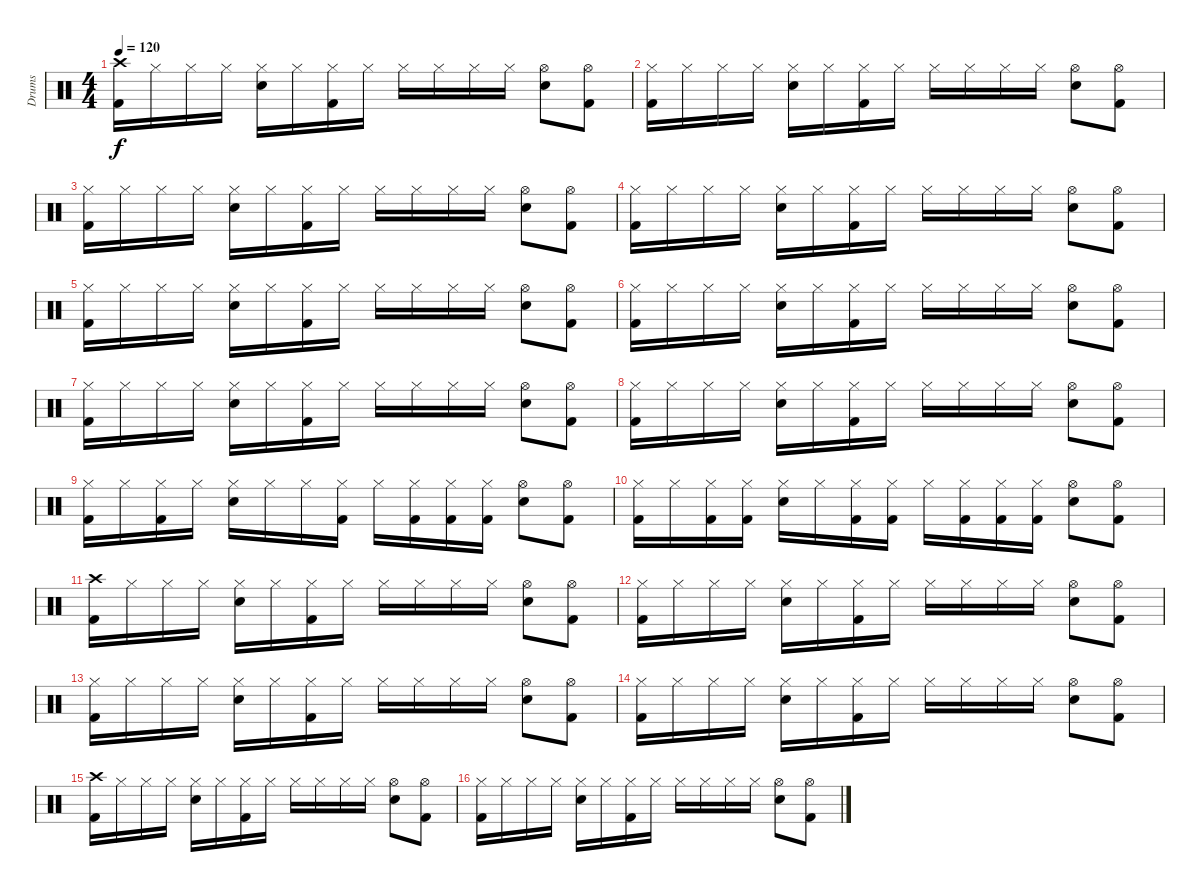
\track ("Drums" "Drums") {instrument percussion}
\staff {score}
\articulation defaults
\ts (4 4)
\tempo 120
\clef neutral
\ks c
("Crash high (hit)" "Kick (hit) 2").16{dy f} "Hi-Hat (closed)".16 "Hi-Hat (closed)".16 "Hi-Hat (closed)".16 ("Hi-Hat (closed)" "Snare (hit) 2").16 "Hi-Hat (closed)".16 ("Hi-Hat (closed)" "Kick (hit) 2").16 "Hi-Hat (closed)".16 "Hi-Hat (closed)".16 "Hi-Hat (closed)".16 "Hi-Hat (closed)".16 "Hi-Hat (closed)".16 ("Hi-Hat (open)" "Snare (hit) 2").8 ("Hi-Hat (open)" "Kick (hit) 2").8 |
("Hi-Hat (closed)" "Kick (hit) 2").16 "Hi-Hat (closed)".16 "Hi-Hat (closed)".16 "Hi-Hat (closed)".16 ("Hi-Hat (closed)" "Snare (hit) 2").16 "Hi-Hat (closed)".16 ("Hi-Hat (closed)" "Kick (hit) 2").16 "Hi-Hat (closed)".16 "Hi-Hat (closed)".16 "Hi-Hat (closed)".16 "Hi-Hat (closed)".16 "Hi-Hat (closed)".16 ("Hi-Hat (open)" "Snare (hit) 2").8 ("Hi-Hat (open)" "Kick (hit) 2").8 |
("Hi-Hat (closed)" "Kick (hit) 2").16 "Hi-Hat (closed)".16 "Hi-Hat (closed)".16 "Hi-Hat (closed)".16 ("Hi-Hat (closed)" "Snare (hit) 2").16 "Hi-Hat (closed)".16 ("Hi-Hat (closed)" "Kick (hit) 2").16 "Hi-Hat (closed)".16 "Hi-Hat (closed)".16 "Hi-Hat (closed)".16 "Hi-Hat (closed)".16 "Hi-Hat (closed)".16 ("Hi-Hat (open)" "Snare (hit) 2").8 ("Hi-Hat (open)" "Kick (hit) 2").8 |
("Hi-Hat (closed)" "Kick (hit) 2").16 "Hi-Hat (closed)".16 "Hi-Hat (closed)".16 "Hi-Hat (closed)".16 ("Hi-Hat (closed)" "Snare (hit) 2").16 "Hi-Hat (closed)".16 ("Hi-Hat (closed)" "Kick (hit) 2").16 "Hi-Hat (closed)".16 "Hi-Hat (closed)".16 "Hi-Hat (closed)".16 "Hi-Hat (closed)".16 "Hi-Hat (closed)".16 ("Hi-Hat (open)" "Snare (hit) 2").8 ("Hi-Hat (open)" "Kick (hit) 2").8 |
("Hi-Hat (closed)" "Kick (hit) 2").16 "Hi-Hat (closed)".16 "Hi-Hat (closed)".16 "Hi-Hat (closed)".16 ("Hi-Hat (closed)" "Snare (hit) 2").16 "Hi-Hat (closed)".16 ("Hi-Hat (closed)" "Kick (hit) 2").16 "Hi-Hat (closed)".16 "Hi-Hat (closed)".16 "Hi-Hat (closed)".16 "Hi-Hat (closed)".16 "Hi-Hat (closed)".16 ("Hi-Hat (open)" "Snare (hit) 2").8 ("Hi-Hat (open)" "Kick (hit) 2").8 |
("Hi-Hat (closed)" "Kick (hit) 2").16 "Hi-Hat (closed)".16 "Hi-Hat (closed)".16 "Hi-Hat (closed)".16 ("Hi-Hat (closed)" "Snare (hit) 2").16 "Hi-Hat (closed)".16 ("Hi-Hat (closed)" "Kick (hit) 2").16 "Hi-Hat (closed)".16 "Hi-Hat (closed)".16 "Hi-Hat (closed)".16 "Hi-Hat (closed)".16 "Hi-Hat (closed)".16 ("Hi-Hat (open)" "Snare (hit) 2").8 ("Hi-Hat (open)" "Kick (hit) 2").8 |
("Hi-Hat (closed)" "Kick (hit) 2").16 "Hi-Hat (closed)".16 "Hi-Hat (closed)".16 "Hi-Hat (closed)".16 ("Hi-Hat (closed)" "Snare (hit) 2").16 "Hi-Hat (closed)".16 ("Hi-Hat (closed)" "Kick (hit) 2").16 "Hi-Hat (closed)".16 "Hi-Hat (closed)".16 "Hi-Hat (closed)".16 "Hi-Hat (closed)".16 "Hi-Hat (closed)".16 ("Hi-Hat (open)" "Snare (hit) 2").8 ("Hi-Hat (open)" "Kick (hit) 2").8 |
("Hi-Hat (closed)" "Kick (hit) 2").16 "Hi-Hat (closed)".16 "Hi-Hat (closed)".16 "Hi-Hat (closed)".16 ("Hi-Hat (closed)" "Snare (hit) 2").16 "Hi-Hat (closed)".16 ("Hi-Hat (closed)" "Kick (hit) 2").16 "Hi-Hat (closed)".16 "Hi-Hat (closed)".16 "Hi-Hat (closed)".16 "Hi-Hat (closed)".16 "Hi-Hat (closed)".16 ("Hi-Hat (open)" "Snare (hit) 2").8 ("Hi-Hat (open)" "Kick (hit) 2").8 |
("Hi-Hat (closed)" "Kick (hit) 2").16 "Hi-Hat (closed)".16 ("Hi-Hat (closed)" "Kick (hit) 2").16 "Hi-Hat (closed)".16 ("Hi-Hat (closed)" "Snare (hit) 2").16 "Hi-Hat (closed)".16 "Hi-Hat (closed)".16 ("Hi-Hat (closed)" "Kick (hit) 2").16 "Hi-Hat (closed)".16 ("Hi-Hat (closed)" "Kick (hit) 2").16 ("Hi-Hat (closed)" "Kick (hit) 2").16 ("Hi-Hat (closed)" "Kick (hit) 2").16 ("Hi-Hat (open)" "Snare (hit) 2").8 ("Hi-Hat (open)" "Kick (hit) 2").8 |
("Hi-Hat (closed)" "Kick (hit) 2").16 "Hi-Hat (closed)".16 ("Hi-Hat (closed)" "Kick (hit) 2").16 ("Hi-Hat (closed)" "Kick (hit) 2").16 ("Hi-Hat (closed)" "Snare (hit) 2").16 "Hi-Hat (closed)".16 ("Hi-Hat (closed)" "Kick (hit) 2").16 ("Hi-Hat (closed)" "Kick (hit) 2").16 "Hi-Hat (closed)".16 ("Hi-Hat (closed)" "Kick (hit) 2").16 ("Hi-Hat (closed)" "Kick (hit) 2").16 ("Hi-Hat (closed)" "Kick (hit) 2").16 ("Hi-Hat (open)" "Snare (hit) 2").8 ("Hi-Hat (open)" "Kick (hit) 2").8 |
("Crash high (hit)" "Kick (hit) 2").16 "Hi-Hat (closed)".16 "Hi-Hat (closed)".16 "Hi-Hat (closed)".16 ("Hi-Hat (closed)" "Snare (hit) 2").16 "Hi-Hat (closed)".16 ("Hi-Hat (closed)" "Kick (hit) 2").16 "Hi-Hat (closed)".16 "Hi-Hat (closed)".16 "Hi-Hat (closed)".16 "Hi-Hat (closed)".16 "Hi-Hat (closed)".16 ("Hi-Hat (open)" "Snare (hit) 2").8 ("Hi-Hat (open)" "Kick (hit) 2").8 |
("Hi-Hat (closed)" "Kick (hit) 2").16 "Hi-Hat (closed)".16 "Hi-Hat (closed)".16 "Hi-Hat (closed)".16 ("Hi-Hat (closed)" "Snare (hit) 2").16 "Hi-Hat (closed)".16 ("Hi-Hat (closed)" "Kick (hit) 2").16 "Hi-Hat (closed)".16 "Hi-Hat (closed)".16 "Hi-Hat (closed)".16 "Hi-Hat (closed)".16 "Hi-Hat (closed)".16 ("Hi-Hat (open)" "Snare (hit) 2").8 ("Hi-Hat (open)" "Kick (hit) 2").8 |
("Hi-Hat (closed)" "Kick (hit) 2").16 "Hi-Hat (closed)".16 "Hi-Hat (closed)".16 "Hi-Hat (closed)".16 ("Hi-Hat (closed)" "Snare (hit) 2").16 "Hi-Hat (closed)".16 ("Hi-Hat (closed)" "Kick (hit) 2").16 "Hi-Hat (closed)".16 "Hi-Hat (closed)".16 "Hi-Hat (closed)".16 "Hi-Hat (closed)".16 "Hi-Hat (closed)".16 ("Hi-Hat (open)" "Snare (hit) 2").8 ("Hi-Hat (open)" "Kick (hit) 2").8 |
("Hi-Hat (closed)" "Kick (hit) 2").16 "Hi-Hat (closed)".16 "Hi-Hat (closed)".16 "Hi-Hat (closed)".16 ("Hi-Hat (closed)" "Snare (hit) 2").16 "Hi-Hat (closed)".16 ("Hi-Hat (closed)" "Kick (hit) 2").16 "Hi-Hat (closed)".16 "Hi-Hat (closed)".16 "Hi-Hat (closed)".16 "Hi-Hat (closed)".16 "Hi-Hat (closed)".16 ("Hi-Hat (open)" "Snare (hit) 2").8 ("Hi-Hat (open)" "Kick (hit) 2").8 |
("Crash high (hit)" "Kick (hit) 2").16 "Hi-Hat (closed)".16 "Hi-Hat (closed)".16 "Hi-Hat (closed)".16 ("Hi-Hat (closed)" "Snare (hit) 2").16 "Hi-Hat (closed)".16 ("Hi-Hat (closed)" "Kick (hit) 2").16 "Hi-Hat (closed)".16 "Hi-Hat (closed)".16 "Hi-Hat (closed)".16 "Hi-Hat (closed)".16 "Hi-Hat (closed)".16 ("Hi-Hat (open)" "Snare (hit) 2").8 ("Hi-Hat (open)" "Kick (hit) 2").8 |
("Hi-Hat (closed)" "Kick (hit) 2").16 "Hi-Hat (closed)".16 "Hi-Hat (closed)".16 "Hi-Hat (closed)".16 ("Hi-Hat (closed)" "Snare (hit) 2").16 "Hi-Hat (closed)".16 ("Hi-Hat (closed)" "Kick (hit) 2").16 "Hi-Hat (closed)".16 "Hi-Hat (closed)".16 "Hi-Hat (closed)".16 "Hi-Hat (closed)".16 "Hi-Hat (closed)".16 ("Hi-Hat (open)" "Snare (hit) 2").8 ("Hi-Hat (open)" "Kick (hit) 2").8
